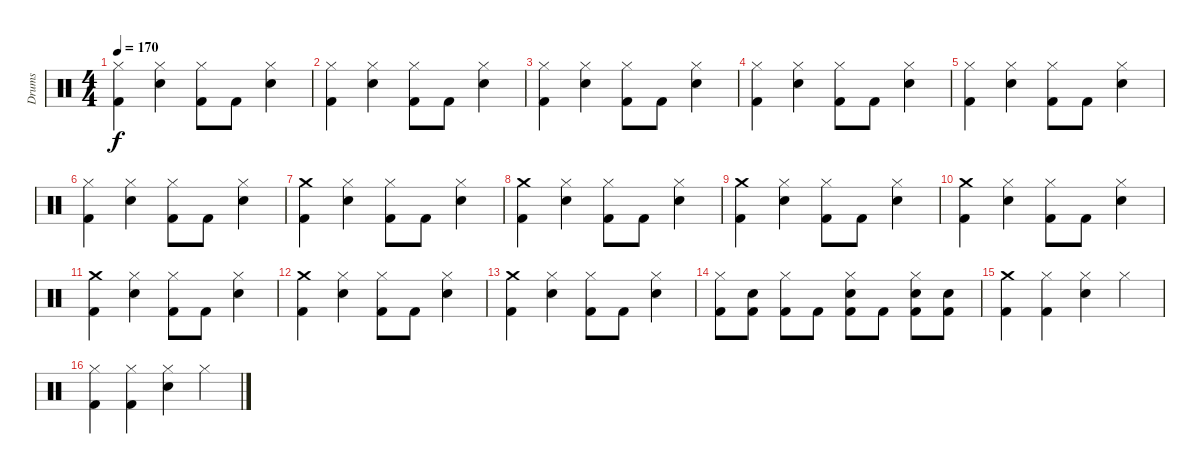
\track ("Drums" "Drums") {instrument percussion}
\staff {score}
\articulation defaults
\ts (4 4)
\tempo 170
\clef neutral
\ks c
("Hi-Hat (closed)" "Kick (hit) 2").4{dy f} ("Hi-Hat (closed)" "Electric Snare (hit)").4 ("Hi-Hat (closed)" "Kick (hit) 2").8 "Kick (hit) 2".8 ("Hi-Hat (closed)" "Electric Snare (hit)").4 |
("Hi-Hat (closed)" "Kick (hit) 2").4 ("Hi-Hat (closed)" "Electric Snare (hit)").4 ("Hi-Hat (closed)" "Kick (hit) 2").8 "Kick (hit) 2".8 ("Hi-Hat (closed)" "Electric Snare (hit)").4 |
("Hi-Hat (closed)" "Kick (hit) 2").4 ("Hi-Hat (closed)" "Electric Snare (hit)").4 ("Hi-Hat (closed)" "Kick (hit) 2").8 "Kick (hit) 2".8 ("Hi-Hat (closed)" "Electric Snare (hit)").4 |
("Hi-Hat (closed)" "Kick (hit) 2").4 ("Hi-Hat (closed)" "Electric Snare (hit)").4 ("Hi-Hat (closed)" "Kick (hit) 2").8 "Kick (hit) 2".8 ("Hi-Hat (closed)" "Electric Snare (hit)").4 |
("Hi-Hat (closed)" "Kick (hit) 2").4 ("Hi-Hat (closed)" "Electric Snare (hit)").4 ("Hi-Hat (closed)" "Kick (hit) 2").8 "Kick (hit) 2".8 ("Hi-Hat (closed)" "Electric Snare (hit)").4 |
("Hi-Hat (closed)" "Kick (hit) 2").4 ("Hi-Hat (closed)" "Electric Snare (hit)").4 ("Hi-Hat (closed)" "Kick (hit) 2").8 "Kick (hit) 2".8 ("Hi-Hat (closed)" "Electric Snare (hit)").4 |
("Crash medium (hit)" "Kick (hit) 2").4 ("Hi-Hat (closed)" "Electric Snare (hit)").4 ("Hi-Hat (closed)" "Kick (hit) 2").8 "Kick (hit) 2".8 ("Hi-Hat (closed)" "Electric Snare (hit)").4 |
("Crash medium (hit)" "Kick (hit) 2").4 ("Hi-Hat (closed)" "Electric Snare (hit)").4 ("Hi-Hat (closed)" "Kick (hit) 2").8 "Kick (hit) 2".8 ("Hi-Hat (closed)" "Electric Snare (hit)").4 |
("Crash medium (hit)" "Kick (hit) 2").4 ("Hi-Hat (closed)" "Electric Snare (hit)").4 ("Hi-Hat (closed)" "Kick (hit) 2").8 "Kick (hit) 2".8 ("Hi-Hat (closed)" "Electric Snare (hit)").4 |
("Crash medium (hit)" "Kick (hit) 2").4 ("Hi-Hat (closed)" "Electric Snare (hit)").4 ("Hi-Hat (closed)" "Kick (hit) 2").8 "Kick (hit) 2".8 ("Hi-Hat (closed)" "Electric Snare (hit)").4 |
("Crash medium (hit)" "Kick (hit) 2").4 ("Hi-Hat (closed)" "Electric Snare (hit)").4 ("Hi-Hat (closed)" "Kick (hit) 2").8 "Kick (hit) 2".8 ("Hi-Hat (closed)" "Electric Snare (hit)").4 |
("Crash medium (hit)" "Kick (hit) 2").4 ("Hi-Hat (closed)" "Electric Snare (hit)").4 ("Hi-Hat (closed)" "Kick (hit) 2").8 "Kick (hit) 2".8 ("Hi-Hat (closed)" "Electric Snare (hit)").4 |
("Crash medium (hit)" "Kick (hit) 2").4 ("Hi-Hat (closed)" "Electric Snare (hit)").4 ("Hi-Hat (closed)" "Kick (hit) 2").8 "Kick (hit) 2".8 ("Hi-Hat (closed)" "Electric Snare (hit)").4 |
("Hi-Hat (closed)" "Kick (hit) 2").8 ("Electric Snare (hit)" "Kick (hit) 2").8 ("Hi-Hat (closed)" "Kick (hit) 2").8 "Kick (hit) 2".8 ("Hi-Hat (closed)" "Electric Snare (hit)" "Kick (hit) 2").8 "Kick (hit) 2".8 ("Hi-Hat (closed)" "Electric Snare (hit)" "Kick (hit) 2").8 ("Electric Snare (hit)" "Kick (hit) 2").8 |
("Crash medium (hit)" "Kick (hit) 2").4 ("Hi-Hat (closed)" "Kick (hit) 2").4 ("Hi-Hat (closed)" "Electric Snare (hit)").4 "Hi-Hat (closed)".4 |
("Hi-Hat (closed)" "Kick (hit) 2").4 ("Hi-Hat (closed)" "Kick (hit) 2").4 ("Hi-Hat (closed)" "Electric Snare (hit)").4 "Hi-Hat (closed)".4
